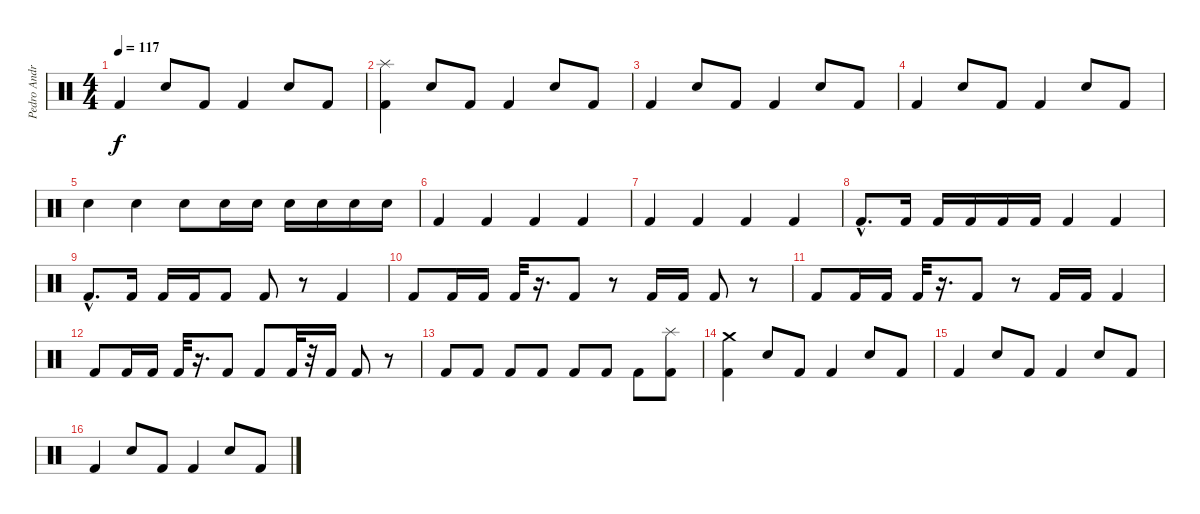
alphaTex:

\track ("Pedro Andreu - Batería" "Pedro Andr") {instrument percussion}
\staff {score}
\articulation defaults
\ts (4 4)
\tempo 117
\clef neutral
\ks c "Kick (hit) 2".4{dy f} "Snare (hit) 2".8 "Kick (hit) 2".8 "Kick (hit) 2".4 "Snare (hit) 2".8 "Kick (hit) 2".8
|
("Splash (hit)" "Kick (hit) 2").4 "Snare (hit) 2".8 "Kick (hit) 2".8 "Kick (hit) 2".4 "Snare (hit) 2".8 "Kick (hit) 2".8 |
"Kick (hit) 2".4 "Snare (hit) 2".8 "Kick (hit) 2".8 "Kick (hit) 2".4 "Snare (hit) 2".8 "Kick (hit) 2".8 |
"Kick (hit) 2".4 "Snare (hit) 2".8 "Kick (hit) 2".8 "Kick (hit) 2".4 "Snare (hit) 2".8 "Kick (hit) 2".8 |
"Snare (hit) 2".4 "Snare (hit) 2".4 "Snare (hit) 2".8 "Snare (hit) 2".16 "Snare (hit) 2".16 "Snare (hit) 2".16 "Snare (hit) 2".16 "Snare (hit) 2".16 "Snare (hit) 2".16 |
"Kick (hit) 2".4 "Kick (hit) 2".4 "Kick (hit) 2".4 "Kick (hit) 2".4 |
"Kick (hit) 2".4 "Kick (hit) 2".4 "Kick (hit) 2".4 "Kick (hit) 2".4 |
"Kick (hit) 2"{hac}.8{d} "Kick (hit) 2".16 "Kick (hit) 2".16 "Kick (hit) 2".16 "Kick (hit) 2".16 "Kick (hit) 2".16 "Kick (hit) 2".4 "Kick (hit) 2".4 |
"Kick (hit) 2"{hac}.8{d} "Kick (hit) 2".16 "Kick (hit) 2".16 "Kick (hit) 2".16 "Kick (hit) 2".8 "Kick (hit) 2".8 r.8 "Kick (hit) 2".4 |
"Kick (hit) 2".8 "Kick (hit) 2".16 "Kick (hit) 2".16 "Kick (hit) 2".32 r.16{d} "Kick (hit) 2".8 r.8 "Kick (hit) 2".16 "Kick (hit) 2".16 "Kick (hit) 2".8 r.8 |
"Kick (hit) 2".8 "Kick (hit) 2".16 "Kick (hit) 2".16 "Kick (hit) 2".32 r.16{d} "Kick (hit) 2".8 r.8 "Kick (hit) 2".16 "Kick (hit) 2".16 "Kick (hit) 2".4 |
"Kick (hit) 2".8 "Kick (hit) 2".16 "Kick (hit) 2".16 "Kick (hit) 2".32 r.16{d} "Kick (hit) 2".8 "Kick (hit) 2".8 "Kick (hit) 2".32 r.32 "Kick (hit) 2".16 "Kick (hit) 2".8 r.8 |
"Kick (hit) 2".8 "Kick (hit) 2".8 "Kick (hit) 2".8 "Kick (hit) 2".8 "Kick (hit) 2".8 "Kick (hit) 2".8 "Kick (hit) 2".8 ("Splash (hit)" "Kick (hit) 2").8 |
("Crash medium (hit)" "Kick (hit) 2").4 "Snare (hit) 2".8 "Kick (hit) 2".8 "Kick (hit) 2".4 "Snare (hit) 2".8 "Kick (hit) 2".8 |
"Kick (hit) 2".4 "Snare (hit) 2".8 "Kick (hit) 2".8 "Kick (hit) 2".4 "Snare (hit) 2".8 "Kick (hit) 2".8 |
"Kick (hit) 2".4 "Snare (hit) 2".8 "Kick (hit) 2".8 "Kick (hit) 2".4 "Snare (hit) 2".8 "Kick (hit) 2".8
